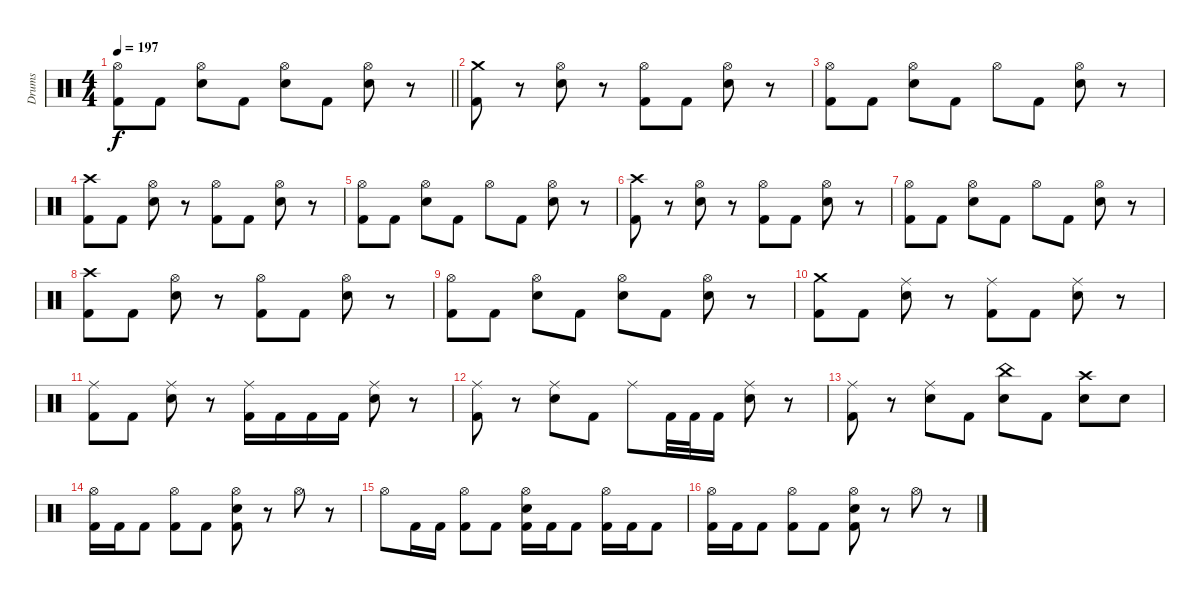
\track ("Drums" "Drums") {instrument percussion}
\staff {score}
\articulation defaults
\ts (4 4)
\tempo 197
\clef neutral
\barLineRight lightlight
\ks c
("Hi-Hat (open)" "Kick (hit) 2").8{dy f} "Kick (hit) 2".8 ("Hi-Hat (open)" "Electric Snare (hit)").8 "Kick (hit) 2".8 ("Hi-Hat (open)" "Electric Snare (hit)").8 "Kick (hit) 2".8 ("Hi-Hat (open)" "Electric Snare (hit)").8 r.8 |
("Crash medium (hit)" "Kick (hit) 2").8 r.8 ("Hi-Hat (open)" "Electric Snare (hit)").8 r.8 ("Hi-Hat (open)" "Kick (hit) 2").8 "Kick (hit) 2".8 ("Hi-Hat (open)" "Electric Snare (hit)").8 r.8 |
("Hi-Hat (open)" "Kick (hit) 2").8 "Kick (hit) 2".8 ("Hi-Hat (open)" "Electric Snare (hit)").8 "Kick (hit) 2".8 "Hi-Hat (open)".8 "Kick (hit) 2".8 ("Hi-Hat (open)" "Electric Snare (hit)").8 r.8 |
("Crash high (hit)" "Kick (hit) 2").8 "Kick (hit) 2".8 ("Hi-Hat (open)" "Electric Snare (hit)").8 r.8 ("Hi-Hat (open)" "Kick (hit) 2").8 "Kick (hit) 2".8 ("Hi-Hat (open)" "Electric Snare (hit)").8 r.8 |
("Hi-Hat (open)" "Kick (hit) 2").8 "Kick (hit) 2".8 ("Hi-Hat (open)" "Electric Snare (hit)").8 "Kick (hit) 2".8 "Hi-Hat (open)".8 "Kick (hit) 2".8 ("Hi-Hat (open)" "Electric Snare (hit)").8 r.8 |
("Crash high (hit)" "Kick (hit) 2").8 r.8 ("Hi-Hat (open)" "Electric Snare (hit)").8 r.8 ("Hi-Hat (open)" "Kick (hit) 2").8 "Kick (hit) 2".8 ("Hi-Hat (open)" "Electric Snare (hit)").8 r.8 |
("Hi-Hat (open)" "Kick (hit) 2").8 "Kick (hit) 2".8 ("Hi-Hat (open)" "Electric Snare (hit)").8 "Kick (hit) 2".8 "Hi-Hat (open)".8 "Kick (hit) 2".8 ("Hi-Hat (open)" "Electric Snare (hit)").8 r.8 |
("Crash high (hit)" "Kick (hit) 2").8 "Kick (hit) 2".8 ("Hi-Hat (open)" "Electric Snare (hit)").8 r.8 ("Hi-Hat (open)" "Kick (hit) 2").8 "Kick (hit) 2".8 ("Hi-Hat (open)" "Electric Snare (hit)").8 r.8 |
("Hi-Hat (open)" "Kick (hit) 2").8 "Kick (hit) 2".8 ("Hi-Hat (open)" "Electric Snare (hit)").8 "Kick (hit) 2".8 ("Hi-Hat (open)" "Electric Snare (hit)").8 "Kick (hit) 2".8 ("Hi-Hat (open)" "Electric Snare (hit)").8 r.8 |
("Crash medium (hit)" "Kick (hit) 2").8 "Kick (hit) 2".8 ("Ride (middle)" "Electric Snare (hit)").8 r.8 ("Ride (middle)" "Kick (hit) 2").8 "Kick (hit) 2".8 ("Ride (middle)" "Electric Snare (hit)").8 r.8 |
("Ride (middle)" "Kick (hit) 2").8 "Kick (hit) 2".8 ("Ride (middle)" "Electric Snare (hit)").8 r.8 ("Ride (middle)" "Kick (hit) 2").16 "Kick (hit) 2".16 "Kick (hit) 2".16 "Kick (hit) 2".16 ("Ride (middle)" "Electric Snare (hit)").8 r.8 |
("Ride (middle)" "Kick (hit) 2").8 r.8 ("Ride (middle)" "Electric Snare (hit)").8 "Kick (hit) 2".8 "Ride (middle)".8 "Kick (hit) 2".32 "Kick (hit) 2".32 "Kick (hit) 2".16 ("Ride (middle)" "Electric Snare (hit)").8 r.8 |
("Ride (middle)" "Kick (hit) 2").8 r.8 ("Ride (middle)" "Electric Snare (hit)").8 "Kick (hit) 2".8 ("China (hit)" "Electric Snare (hit)").8 "Kick (hit) 2".8 ("Crash high (hit)" "Electric Snare (hit)").8 "Electric Snare (hit)".8 |
("Hi-Hat (open)" "Kick (hit) 2").16 "Kick (hit) 2".16 "Kick (hit) 2".8 ("Hi-Hat (open)" "Kick (hit) 2").8 "Kick (hit) 2".8 ("Hi-Hat (open)" "Electric Snare (hit)" "Kick (hit) 2").8 r.8 "Hi-Hat (open)".8 r.8 |
"Hi-Hat (open)".8 "Kick (hit) 2".16 "Kick (hit) 2".16 ("Hi-Hat (open)" "Kick (hit) 2").8 "Kick (hit) 2".8 ("Hi-Hat (open)" "Electric Snare (hit)" "Kick (hit) 2").16 "Kick (hit) 2".16 "Kick (hit) 2".8 ("Hi-Hat (open)" "Kick (hit) 2").16 "Kick (hit) 2".16 "Kick (hit) 2".8 |
("Hi-Hat (open)" "Kick (hit) 2").16 "Kick (hit) 2".16 "Kick (hit) 2".8 ("Hi-Hat (open)" "Kick (hit) 2").8 "Kick (hit) 2".8 ("Hi-Hat (open)" "Electric Snare (hit)" "Kick (hit) 2").8 r.8 "Hi-Hat (open)".8 r.8
